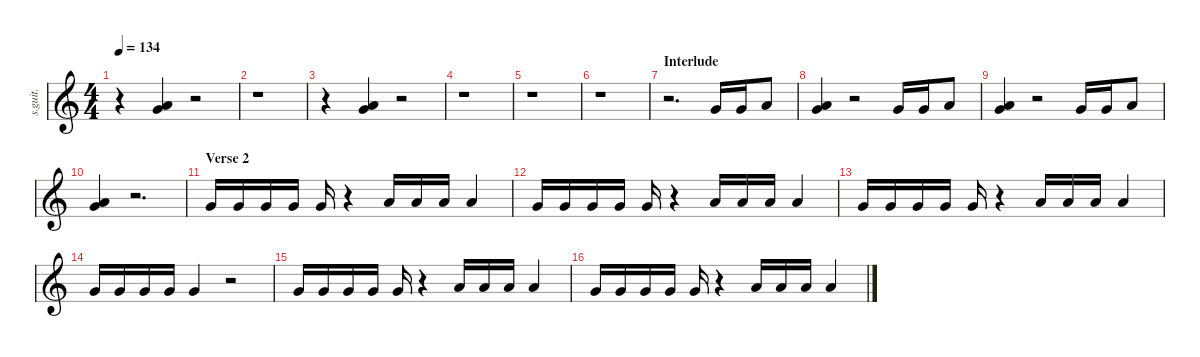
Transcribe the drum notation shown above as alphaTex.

\defaultSystemsLayout 4
\hideDynamics
\bracketExtendMode nobrackets
\track ("Shawn Crahan" "s.guit.") {instrument percussion}
\staff {score}
\articulation defaults
\ts (4 4)
\tempo 134
\clef g2
\ks c
r.4{dy f} ("Very Low Tom (hit)" "Low Floor Tom (hit)").4 r.2 |
r.1 |
r.4 ("Very Low Tom (hit)" "Low Floor Tom (hit)").4 r.2 |
r.1 |
r.1 |
r.1 |
\section ("" "Interlude")
r.2{d} "Very Low Tom (hit)".16 "Very Low Tom (hit)".16 "Low Floor Tom (hit)".8 |
("Very Low Tom (hit)" "Low Floor Tom (hit)").4 r.2 "Very Low Tom (hit)".16 "Very Low Tom (hit)".16 "Low Floor Tom (hit)".8 |
("Very Low Tom (hit)" "Low Floor Tom (hit)").4 r.2 "Very Low Tom (hit)".16 "Very Low Tom (hit)".16 "Low Floor Tom (hit)".8 |
("Very Low Tom (hit)" "Low Floor Tom (hit)").4 r.2{d} |
\section ("" "Verse 2")
"Very Low Tom (hit)".16 "Very Low Tom (hit)".16 "Very Low Tom (hit)".16 "Very Low Tom (hit)".16 "Very Low Tom (hit)".16 r.4 "Low Floor Tom (hit)".16 "Low Floor Tom (hit)".16 "Low Floor Tom (hit)".16 "Low Floor Tom (hit)".4 |
"Very Low Tom (hit)".16 "Very Low Tom (hit)".16 "Very Low Tom (hit)".16 "Very Low Tom (hit)".16 "Very Low Tom (hit)".16 r.4 "Low Floor Tom (hit)".16 "Low Floor Tom (hit)".16 "Low Floor Tom (hit)".16 "Low Floor Tom (hit)".4 |
"Very Low Tom (hit)".16 "Very Low Tom (hit)".16 "Very Low Tom (hit)".16 "Very Low Tom (hit)".16 "Very Low Tom (hit)".16 r.4 "Low Floor Tom (hit)".16 "Low Floor Tom (hit)".16 "Low Floor Tom (hit)".16 "Low Floor Tom (hit)".4 |
"Very Low Tom (hit)".16 "Very Low Tom (hit)".16 "Very Low Tom (hit)".16 "Very Low Tom (hit)".16 "Very Low Tom (hit)".4 r.2 |
"Very Low Tom (hit)".16 "Very Low Tom (hit)".16 "Very Low Tom (hit)".16 "Very Low Tom (hit)".16 "Very Low Tom (hit)".16 r.4 "Low Floor Tom (hit)".16 "Low Floor Tom (hit)".16 "Low Floor Tom (hit)".16 "Low Floor Tom (hit)".4 |
"Very Low Tom (hit)".16 "Very Low Tom (hit)".16 "Very Low Tom (hit)".16 "Very Low Tom (hit)".16 "Very Low Tom (hit)".16 r.4 "Low Floor Tom (hit)".16 "Low Floor Tom (hit)".16 "Low Floor Tom (hit)".16 "Low Floor Tom (hit)".4
